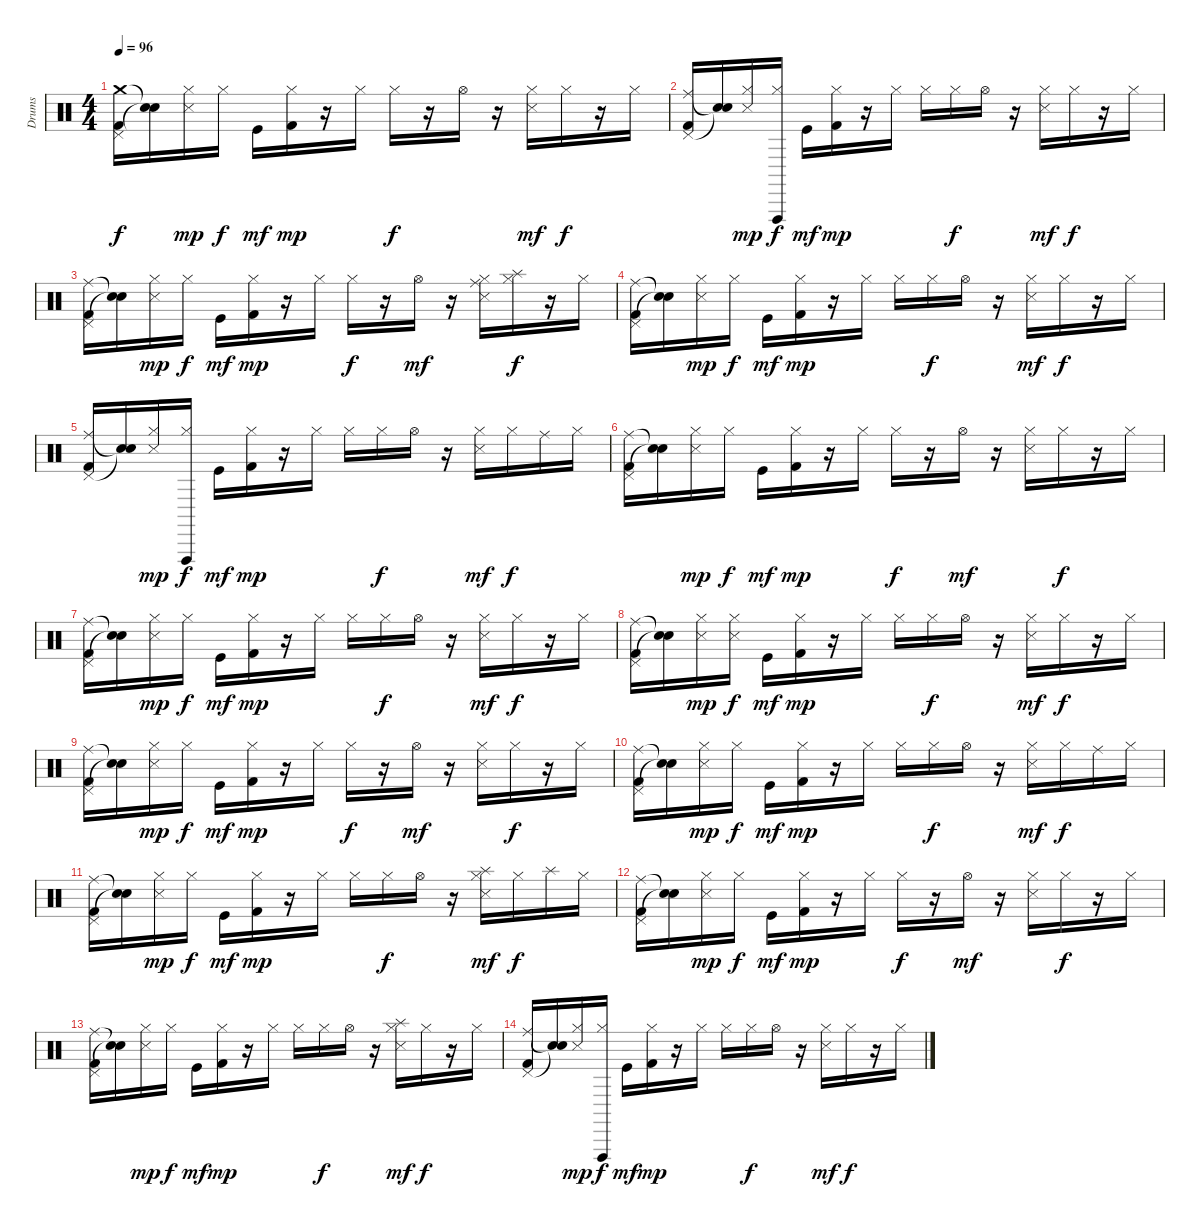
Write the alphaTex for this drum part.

\track ("Drums" "Drums") {instrument percussion}
\staff {score}
\articulation defaults
\ts (4 4)
\tempo 96
\clef neutral
\ks c
("Crash medium (hit)" "Pedal Hi-Hat (hit)" "Kick (hit) 2").16{dy f} ("Snare (hit)"{t} "Snare (hit)"{t}).16 ("Hi-Hat (closed)" "Snare (side stick) 3").16{dy mp} "Hi-Hat (closed)".16{dy f} "Kick (hit)".16{dy mf} ("Hi-Hat (closed)" "Kick (hit) 2").16{dy mp} r.16 "Hi-Hat (closed)".16 "Hi-Hat (closed)".16{dy f} r.16 "Hi-Hat (open)".16 r.16 ("Hi-Hat (closed)" "Snare (side stick) 3").16{dy mf} "Hi-Hat (closed)".16{dy f} r.16 "Hi-Hat (closed)".16 |
("Ride (middle)" "Pedal Hi-Hat (hit)" "Kick (hit) 2").16 ("Snare (hit)"{t} "Snare (hit)"{t}).16 ("Hi-Hat (closed)" "Snare (side stick) 3").16{dy mp} ("Hi-Hat (closed)" "Vibraslap (hit)").16{dy f} "Kick (hit)".16{dy mf} ("Hi-Hat (closed)" "Kick (hit) 2").16{dy mp} r.16 "Hi-Hat (closed)".16 "Hi-Hat (closed)".16 "Hi-Hat (closed)".16{dy f} "Hi-Hat (open)".16 r.16 ("Hi-Hat (closed)" "Snare (side stick) 3").16{dy mf} "Hi-Hat (closed)".16{dy f} r.16 "Hi-Hat (closed)".16 |
("Ride (middle)" "Pedal Hi-Hat (hit)" "Kick (hit) 2").16 ("Snare (hit)"{t} "Snare (hit)"{t}).16 ("Hi-Hat (closed)" "Snare (side stick) 3").16{dy mp} "Hi-Hat (closed)".16{dy f} "Kick (hit)".16{dy mf} ("Hi-Hat (closed)" "Kick (hit) 2").16{dy mp} r.16 "Hi-Hat (closed)".16 "Hi-Hat (closed)".16{dy f} r.16 "Hi-Hat (open)".16{dy mf} r.16 ("Ride (middle)" "Hi-Hat (closed)" "Snare (side stick) 3").16 ("Splash (hit)" "Hi-Hat (closed)").16{dy f} r.16 "Hi-Hat (closed)".16 |
("Ride (middle)" "Pedal Hi-Hat (hit)" "Kick (hit) 2").16 ("Snare (hit)"{t} "Snare (hit)"{t}).16 ("Hi-Hat (closed)" "Snare (side stick) 3").16{dy mp} "Hi-Hat (closed)".16{dy f} "Kick (hit)".16{dy mf} ("Hi-Hat (closed)" "Kick (hit) 2").16{dy mp} r.16 "Hi-Hat (closed)".16 "Hi-Hat (closed)".16 "Hi-Hat (closed)".16{dy f} "Hi-Hat (open)".16 r.16 ("Hi-Hat (closed)" "Snare (side stick) 3").16{dy mf} "Hi-Hat (closed)".16{dy f} r.16 "Hi-Hat (closed)".16 |
("Ride (middle)" "Pedal Hi-Hat (hit)" "Kick (hit) 2").16 ("Snare (hit)"{t} "Snare (hit)"{t}).16 ("Hi-Hat (closed)" "Snare (side stick) 3").16{dy mp} ("Hi-Hat (closed)" "Vibraslap (hit)").16{dy f} "Kick (hit)".16{dy mf} ("Hi-Hat (closed)" "Kick (hit) 2").16{dy mp} r.16 "Hi-Hat (closed)".16 "Hi-Hat (closed)".16 "Hi-Hat (closed)".16{dy f} "Hi-Hat (open)".16 r.16 ("Hi-Hat (closed)" "Snare (side stick) 3").16{dy mf} "Hi-Hat (closed)".16{dy f} "Ride (middle)".16 "Hi-Hat (closed)".16 |
("Ride (middle)" "Pedal Hi-Hat (hit)" "Kick (hit) 2").16 ("Snare (hit)"{t} "Snare (hit)"{t}).16 ("Hi-Hat (closed)" "Snare (side stick) 3").16{dy mp} "Hi-Hat (closed)".16{dy f} "Kick (hit)".16{dy mf} ("Hi-Hat (closed)" "Kick (hit) 2").16{dy mp} r.16 "Hi-Hat (closed)".16 "Hi-Hat (closed)".16{dy f} r.16 "Hi-Hat (open)".16{dy mf} r.16 ("Hi-Hat (closed)" "Snare (side stick) 3").16 "Hi-Hat (closed)".16{dy f} r.16 "Hi-Hat (closed)".16 |
("Ride (middle)" "Pedal Hi-Hat (hit)" "Kick (hit) 2").16 ("Snare (hit)"{t} "Snare (hit)"{t}).16 ("Hi-Hat (closed)" "Snare (side stick) 3").16{dy mp} "Hi-Hat (closed)".16{dy f} "Kick (hit)".16{dy mf} ("Hi-Hat (closed)" "Kick (hit) 2").16{dy mp} r.16 "Hi-Hat (closed)".16 "Hi-Hat (closed)".16 "Hi-Hat (closed)".16{dy f} "Hi-Hat (open)".16 r.16 ("Hi-Hat (closed)" "Snare (side stick) 3").16{dy mf} "Hi-Hat (closed)".16{dy f} r.16 "Hi-Hat (closed)".16 |
("Ride (middle)" "Pedal Hi-Hat (hit)" "Kick (hit) 2").16 ("Snare (hit)"{t} "Snare (hit)"{t}).16 ("Hi-Hat (closed)" "Snare (side stick) 3").16{dy mp} ("Hi-Hat (closed)" "Snare (side stick) 3").16{dy f} "Kick (hit)".16{dy mf} ("Hi-Hat (closed)" "Kick (hit) 2").16{dy mp} r.16 "Hi-Hat (closed)".16 "Hi-Hat (closed)".16 "Hi-Hat (closed)".16{dy f} "Hi-Hat (open)".16 r.16 ("Hi-Hat (closed)" "Snare (side stick) 3").16{dy mf} "Hi-Hat (closed)".16{dy f} r.16 "Hi-Hat (closed)".16 |
("Ride (middle)" "Pedal Hi-Hat (hit)" "Kick (hit) 2").16 ("Snare (hit)"{t} "Snare (hit)"{t}).16 ("Hi-Hat (closed)" "Snare (side stick) 3").16{dy mp} "Hi-Hat (closed)".16{dy f} "Kick (hit)".16{dy mf} ("Hi-Hat (closed)" "Kick (hit) 2").16{dy mp} r.16 "Hi-Hat (closed)".16 "Hi-Hat (closed)".16{dy f} r.16 "Hi-Hat (open)".16{dy mf} r.16 ("Hi-Hat (closed)" "Snare (side stick) 3").16 "Hi-Hat (closed)".16{dy f} r.16 "Hi-Hat (closed)".16 |
("Ride (middle)" "Pedal Hi-Hat (hit)" "Kick (hit) 2").16 ("Snare (hit)"{t} "Snare (hit)"{t}).16 ("Hi-Hat (closed)" "Snare (side stick) 3").16{dy mp} "Hi-Hat (closed)".16{dy f} "Kick (hit)".16{dy mf} ("Hi-Hat (closed)" "Kick (hit) 2").16{dy mp} r.16 "Hi-Hat (closed)".16 "Hi-Hat (closed)".16 "Hi-Hat (closed)".16{dy f} "Hi-Hat (open)".16 r.16 ("Hi-Hat (closed)" "Snare (side stick) 3").16{dy mf} "Hi-Hat (closed)".16{dy f} "Ride (middle)".16 "Hi-Hat (closed)".16 |
("Ride (middle)" "Pedal Hi-Hat (hit)" "Kick (hit) 2").16 ("Snare (hit)"{t} "Snare (hit)"{t}).16 ("Hi-Hat (closed)" "Snare (side stick) 3").16{dy mp} "Hi-Hat (closed)".16{dy f} "Kick (hit)".16{dy mf} ("Hi-Hat (closed)" "Kick (hit) 2").16{dy mp} r.16 "Hi-Hat (closed)".16 "Hi-Hat (closed)".16 "Hi-Hat (closed)".16{dy f} "Hi-Hat (open)".16 r.16 ("Splash (hit)" "Hi-Hat (closed)" "Snare (side stick) 3").16{dy mf} "Hi-Hat (closed)".16{dy f} "Splash (hit)".16 "Hi-Hat (closed)".16 |
("Ride (middle)" "Pedal Hi-Hat (hit)" "Kick (hit) 2").16 ("Snare (hit)"{t} "Snare (hit)"{t}).16 ("Hi-Hat (closed)" "Snare (side stick) 3").16{dy mp} "Hi-Hat (closed)".16{dy f} "Kick (hit)".16{dy mf} ("Hi-Hat (closed)" "Kick (hit) 2").16{dy mp} r.16 "Hi-Hat (closed)".16 "Hi-Hat (closed)".16{dy f} r.16 "Hi-Hat (open)".16{dy mf} r.16 ("Hi-Hat (closed)" "Snare (side stick) 3").16 "Hi-Hat (closed)".16{dy f} r.16 "Hi-Hat (closed)".16 |
("Ride (middle)" "Pedal Hi-Hat (hit)" "Kick (hit) 2").16 ("Snare (hit)"{t} "Snare (hit)"{t}).16 ("Hi-Hat (closed)" "Snare (side stick) 3").16{dy mp} "Hi-Hat (closed)".16{dy f} "Kick (hit)".16{dy mf} ("Hi-Hat (closed)" "Kick (hit) 2").16{dy mp} r.16 "Hi-Hat (closed)".16 "Hi-Hat (closed)".16 "Hi-Hat (closed)".16{dy f} "Hi-Hat (open)".16 r.16 ("Splash (hit)" "Hi-Hat (closed)" "Snare (side stick) 3").16{dy mf} "Hi-Hat (closed)".16{dy f} r.16 "Hi-Hat (closed)".16 |
("Ride (middle)" "Pedal Hi-Hat (hit)" "Kick (hit) 2").16 ("Snare (hit)"{t} "Snare (hit)"{t}).16 ("Hi-Hat (closed)" "Snare (side stick) 3").16{dy mp} ("Hi-Hat (closed)" "Vibraslap (hit)").16{dy f} "Kick (hit)".16{dy mf} ("Hi-Hat (closed)" "Kick (hit) 2").16{dy mp} r.16 "Hi-Hat (closed)".16 "Hi-Hat (closed)".16 "Hi-Hat (closed)".16{dy f} "Hi-Hat (open)".16 r.16 ("Hi-Hat (closed)" "Snare (side stick) 3").16{dy mf} "Hi-Hat (closed)".16{dy f} r.16 "Hi-Hat (closed)".16
